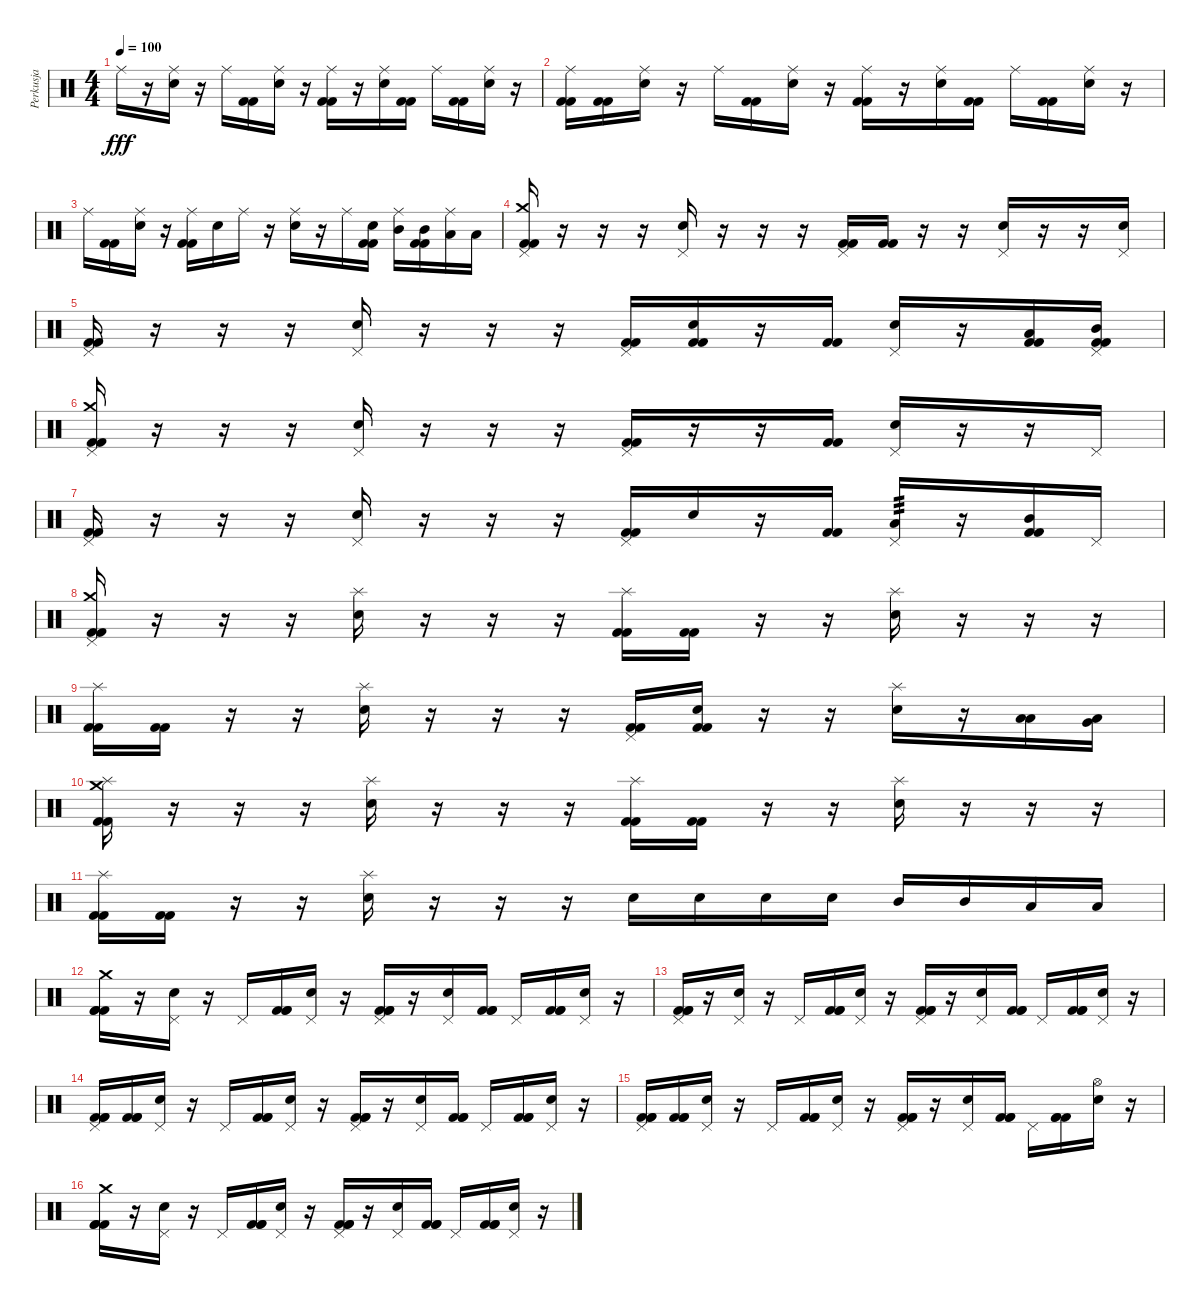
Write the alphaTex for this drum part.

\track ("Perkusja" "Perkusja") {instrument percussion}
\staff {score}
\articulation defaults
\ts (4 4)
\tempo 100
\clef neutral
\ks c "Ride (middle)".16{dy fff}
r.16 ("Snare (hit) 2" "Ride (middle)").16 r.16 "Ride (middle)".16 ("Kick (hit) 2" "Kick (hit) 2").16 ("Snare (hit) 2" "Ride (middle)").16 r.16 ("Ride (middle)" "Kick (hit) 2" "Kick (hit) 2").16 r.16 ("Snare (hit) 2" "Ride (middle)").16 ("Kick (hit) 2" "Kick (hit) 2").16 "Ride (middle)".16 ("Kick (hit) 2" "Kick (hit) 2").16 ("Snare (hit) 2" "Ride (middle)").16 r.16 |
("Ride (middle)" "Kick (hit) 2" "Kick (hit) 2").16 ("Kick (hit) 2" "Kick (hit) 2").16 ("Snare (hit) 2" "Ride (middle)").16 r.16 "Ride (middle)".16 ("Kick (hit) 2" "Kick (hit) 2").16 ("Snare (hit) 2" "Ride (middle)").16 r.16 ("Ride (middle)" "Kick (hit) 2" "Kick (hit) 2").16 r.16 ("Snare (hit) 2" "Ride (middle)").16 ("Kick (hit) 2" "Kick (hit) 2").16 "Ride (middle)".16 ("Kick (hit) 2" "Kick (hit) 2").16 ("Snare (hit) 2" "Ride (middle)").16 r.16 |
"Ride (middle)".16 ("Kick (hit) 2" "Kick (hit) 2").16 ("Snare (hit) 2" "Ride (middle)").16 r.16 ("Ride (middle)" "Kick (hit) 2" "Kick (hit) 2").16 "Snare (hit) 2".16 "Ride (middle)".16 r.16 ("Snare (hit) 2" "Ride (middle)").16 r.16 "Ride (middle)".16 ("Snare (hit) 2" "Kick (hit) 2" "Kick (hit) 2").16 ("Mid Tom (hit)" "Ride (middle)").16 ("Mid Tom (hit)" "Kick (hit) 2" "Kick (hit) 2").16 ("Low Tom (hit)" "Ride (middle)").16 "Low Tom (hit)".16 |
("Crash medium (hit)" "Pedal Hi-Hat (hit)" "Kick (hit) 2" "Kick (hit) 2").16 r.16 r.16 r.16 ("Snare (hit) 2" "Pedal Hi-Hat (hit)").16 r.16 r.16 r.16 ("Pedal Hi-Hat (hit)" "Kick (hit) 2" "Kick (hit) 2").16 ("Kick (hit) 2" "Kick (hit) 2").16 r.16 r.16 ("Snare (hit) 2" "Pedal Hi-Hat (hit)").16 r.16 r.16 ("Snare (hit) 2" "Pedal Hi-Hat (hit)").16 |
("Pedal Hi-Hat (hit)" "Kick (hit) 2" "Kick (hit) 2").16 r.16 r.16 r.16 ("Snare (hit) 2" "Pedal Hi-Hat (hit)").16 r.16 r.16 r.16 ("Pedal Hi-Hat (hit)" "Kick (hit) 2" "Kick (hit) 2").16 ("Snare (hit) 2" "Kick (hit) 2" "Kick (hit) 2").16 r.16 ("Kick (hit) 2" "Kick (hit) 2").16 ("Snare (hit) 2" "Pedal Hi-Hat (hit)").16 r.16 ("Low Tom (hit)" "Kick (hit) 2" "Kick (hit) 2").16 ("Mid Tom (hit)" "Pedal Hi-Hat (hit)" "Kick (hit) 2" "Kick (hit) 2").16 |
("Crash medium (hit)" "Pedal Hi-Hat (hit)" "Kick (hit) 2" "Kick (hit) 2").16 r.16 r.16 r.16 ("Snare (hit) 2" "Pedal Hi-Hat (hit)").16 r.16 r.16 r.16 ("Pedal Hi-Hat (hit)" "Kick (hit) 2" "Kick (hit) 2").16 r.16 r.16 ("Kick (hit) 2" "Kick (hit) 2").16 ("Snare (hit) 2" "Pedal Hi-Hat (hit)").16 r.16 r.16 "Pedal Hi-Hat (hit)".16 |
("Pedal Hi-Hat (hit)" "Kick (hit) 2" "Kick (hit) 2").16 r.16 r.16 r.16 ("Snare (hit) 2" "Pedal Hi-Hat (hit)").16 r.16 r.16 r.16 ("Pedal Hi-Hat (hit)" "Kick (hit) 2" "Kick (hit) 2").16 "Snare (hit) 2".16 r.16 ("Kick (hit) 2" "Kick (hit) 2").16 ("Low Tom (hit)" "Pedal Hi-Hat (hit)").16{tp 3} r.16 ("Mid Tom (hit)" "Kick (hit) 2" "Kick (hit) 2").16 "Pedal Hi-Hat (hit)".16 |
("Crash medium (hit)" "Pedal Hi-Hat (hit)" "Kick (hit) 2" "Kick (hit) 2").16 r.16 r.16 r.16 ("Snare (hit) 2" "Splash (hit)").16 r.16 r.16 r.16 ("Splash (hit)" "Kick (hit) 2" "Kick (hit) 2").16 ("Kick (hit) 2" "Kick (hit) 2").16 r.16 r.16 ("Snare (hit) 2" "Splash (hit)").16 r.16 r.16 r.16 |
("Splash (hit)" "Kick (hit) 2" "Kick (hit) 2").16 ("Kick (hit) 2" "Kick (hit) 2").16 r.16 r.16 ("Snare (hit) 2" "Splash (hit)").16 r.16 r.16 r.16 ("Pedal Hi-Hat (hit)" "Kick (hit) 2" "Kick (hit) 2").16 ("Snare (hit) 2" "Kick (hit) 2" "Kick (hit) 2").16 r.16 r.16 ("Snare (hit) 2" "Splash (hit)").16 r.16 ("Low Tom (hit)" "Low Tom (hit)").16 ("Very Low Tom (hit)" "Low Tom (hit)").16 |
("Crash medium (hit)" "Splash (hit)" "Kick (hit) 2" "Kick (hit) 2").16 r.16 r.16 r.16 ("Snare (hit) 2" "Splash (hit)").16 r.16 r.16 r.16 ("Splash (hit)" "Kick (hit) 2" "Kick (hit) 2").16 ("Kick (hit) 2" "Kick (hit) 2").16 r.16 r.16 ("Snare (hit) 2" "Splash (hit)").16 r.16 r.16 r.16 |
("Splash (hit)" "Kick (hit) 2" "Kick (hit) 2").16 ("Kick (hit) 2" "Kick (hit) 2").16 r.16 r.16 ("Snare (hit) 2" "Splash (hit)").16 r.16 r.16 r.16 "Snare (hit) 2".16 "Snare (hit) 2".16 "Snare (hit) 2".16 "Snare (hit) 2".16 "Mid Tom (hit)".16 "Mid Tom (hit)".16 "Low Tom (hit)".16 "Low Tom (hit)".16 |
("Crash medium (hit)" "Kick (hit) 2" "Kick (hit) 2" "Kick (hit) 2").16 r.16 ("Snare (hit) 2" "Pedal Hi-Hat (hit)").16 r.16 "Pedal Hi-Hat (hit)".16 ("Kick (hit) 2" "Kick (hit) 2" "Kick (hit) 2").16 ("Snare (hit) 2" "Pedal Hi-Hat (hit)").16 r.16 ("Pedal Hi-Hat (hit)" "Kick (hit) 2" "Kick (hit) 2" "Kick (hit) 2").16 r.16 ("Snare (hit) 2" "Pedal Hi-Hat (hit)").16 ("Kick (hit) 2" "Kick (hit) 2" "Kick (hit) 2").16 "Pedal Hi-Hat (hit)".16 ("Kick (hit) 2" "Kick (hit) 2" "Kick (hit) 2").16 ("Snare (hit) 2" "Pedal Hi-Hat (hit)").16 r.16 |
("Pedal Hi-Hat (hit)" "Kick (hit) 2" "Kick (hit) 2" "Kick (hit) 2").16 r.16 ("Snare (hit) 2" "Pedal Hi-Hat (hit)").16 r.16 "Pedal Hi-Hat (hit)".16 ("Kick (hit) 2" "Kick (hit) 2" "Kick (hit) 2").16 ("Snare (hit) 2" "Pedal Hi-Hat (hit)").16 r.16 ("Pedal Hi-Hat (hit)" "Kick (hit) 2" "Kick (hit) 2" "Kick (hit) 2").16 r.16 ("Snare (hit) 2" "Pedal Hi-Hat (hit)").16 ("Kick (hit) 2" "Kick (hit) 2" "Kick (hit) 2").16 "Pedal Hi-Hat (hit)".16 ("Kick (hit) 2" "Kick (hit) 2" "Kick (hit) 2").16 ("Snare (hit) 2" "Pedal Hi-Hat (hit)").16 r.16 |
("Pedal Hi-Hat (hit)" "Kick (hit) 2" "Kick (hit) 2" "Kick (hit) 2").16 ("Kick (hit) 2" "Kick (hit) 2" "Kick (hit) 2").16 ("Snare (hit) 2" "Pedal Hi-Hat (hit)").16 r.16 "Pedal Hi-Hat (hit)".16 ("Kick (hit) 2" "Kick (hit) 2" "Kick (hit) 2").16 ("Snare (hit) 2" "Pedal Hi-Hat (hit)").16 r.16 ("Pedal Hi-Hat (hit)" "Kick (hit) 2" "Kick (hit) 2" "Kick (hit) 2").16 r.16 ("Snare (hit) 2" "Pedal Hi-Hat (hit)").16 ("Kick (hit) 2" "Kick (hit) 2" "Kick (hit) 2").16 "Pedal Hi-Hat (hit)".16 ("Kick (hit) 2" "Kick (hit) 2" "Kick (hit) 2").16 ("Snare (hit) 2" "Pedal Hi-Hat (hit)").16 r.16 |
("Pedal Hi-Hat (hit)" "Kick (hit) 2" "Kick (hit) 2" "Kick (hit) 2").16 ("Kick (hit) 2" "Kick (hit) 2" "Kick (hit) 2").16 ("Snare (hit) 2" "Pedal Hi-Hat (hit)").16 r.16 "Pedal Hi-Hat (hit)".16 ("Kick (hit) 2" "Kick (hit) 2" "Kick (hit) 2").16 ("Snare (hit) 2" "Pedal Hi-Hat (hit)").16 r.16 ("Pedal Hi-Hat (hit)" "Kick (hit) 2" "Kick (hit) 2" "Kick (hit) 2").16 r.16 ("Snare (hit) 2" "Pedal Hi-Hat (hit)").16 ("Kick (hit) 2" "Kick (hit) 2" "Kick (hit) 2").16 "Pedal Hi-Hat (hit)".16 ("Kick (hit) 2" "Kick (hit) 2" "Kick (hit) 2").16 ("Snare (hit) 2" "Hi-Hat (open)").16 r.16 |
("Crash medium (hit)" "Kick (hit) 2" "Kick (hit) 2" "Kick (hit) 2").16 r.16 ("Snare (hit) 2" "Pedal Hi-Hat (hit)").16 r.16 "Pedal Hi-Hat (hit)".16 ("Kick (hit) 2" "Kick (hit) 2" "Kick (hit) 2").16 ("Snare (hit) 2" "Pedal Hi-Hat (hit)").16 r.16 ("Pedal Hi-Hat (hit)" "Kick (hit) 2" "Kick (hit) 2" "Kick (hit) 2").16 r.16 ("Snare (hit) 2" "Pedal Hi-Hat (hit)").16 ("Kick (hit) 2" "Kick (hit) 2" "Kick (hit) 2").16 "Pedal Hi-Hat (hit)".16 ("Kick (hit) 2" "Kick (hit) 2" "Kick (hit) 2").16 ("Snare (hit) 2" "Pedal Hi-Hat (hit)").16 r.16
